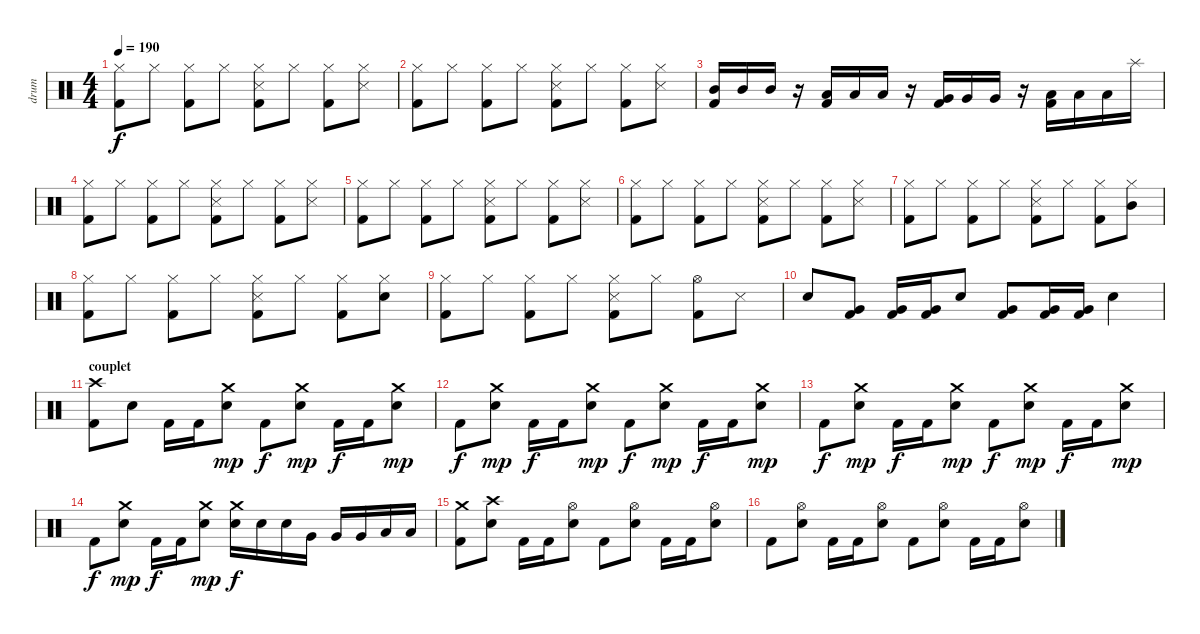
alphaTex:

\track ("drum" "drum") {instrument percussion}
\staff {score}
\articulation defaults
\ts (4 4)
\tempo 190
\clef neutral
\ks c
("Hi-Hat (closed)" "Kick (hit) 2").8{dy f} "Hi-Hat (closed)".8 ("Hi-Hat (closed)" "Kick (hit) 2").8 "Hi-Hat (closed)".8 ("Hi-Hat (closed)" "Snare (side stick) 3" "Kick (hit) 2").8 "Hi-Hat (closed)".8 ("Hi-Hat (closed)" "Kick (hit) 2").8 ("Hi-Hat (closed)" "Snare (side stick) 3").8 |
("Hi-Hat (closed)" "Kick (hit) 2").8 "Hi-Hat (closed)".8 ("Hi-Hat (closed)" "Kick (hit) 2").8 "Hi-Hat (closed)".8 ("Hi-Hat (closed)" "Snare (side stick) 3" "Kick (hit) 2").8 "Hi-Hat (closed)".8 ("Hi-Hat (closed)" "Kick (hit) 2").8 ("Hi-Hat (closed)" "Snare (side stick) 3").8 |
("Mid Tom (hit)" "Kick (hit) 2").16 "Mid Tom (hit)".16 "Mid Tom (hit)".16 r.16 ("Low Tom (hit)" "Kick (hit) 2").16 "Low Tom (hit)".16 "Low Tom (hit)".16 r.16 ("Very Low Tom (hit)" "Kick (hit) 2").16 "Very Low Tom (hit)".16 "Very Low Tom (hit)".16 r.16 ("Low Floor Tom (hit)" "Kick (hit) 2").16 "Low Floor Tom (hit)".16 "Low Floor Tom (hit)".16 "Splash (hit)".16 |
("Hi-Hat (closed)" "Kick (hit) 2").8 "Hi-Hat (closed)".8 ("Hi-Hat (closed)" "Kick (hit) 2").8 "Hi-Hat (closed)".8 ("Hi-Hat (closed)" "Snare (side stick) 3" "Kick (hit) 2").8 "Hi-Hat (closed)".8 ("Hi-Hat (closed)" "Kick (hit) 2").8 ("Hi-Hat (closed)" "Snare (side stick) 3").8 |
("Hi-Hat (closed)" "Kick (hit) 2").8 "Hi-Hat (closed)".8 ("Hi-Hat (closed)" "Kick (hit) 2").8 "Hi-Hat (closed)".8 ("Hi-Hat (closed)" "Snare (side stick) 3" "Kick (hit) 2").8 "Hi-Hat (closed)".8 ("Hi-Hat (closed)" "Kick (hit) 2").8 ("Hi-Hat (closed)" "Snare (side stick) 3").8 |
("Hi-Hat (closed)" "Kick (hit) 2").8 "Hi-Hat (closed)".8 ("Hi-Hat (closed)" "Kick (hit) 2").8 "Hi-Hat (closed)".8 ("Hi-Hat (closed)" "Snare (side stick) 3" "Kick (hit) 2").8 "Hi-Hat (closed)".8 ("Hi-Hat (closed)" "Kick (hit) 2").8 ("Hi-Hat (closed)" "Snare (side stick) 3").8 |
("Hi-Hat (closed)" "Kick (hit) 2").8 "Hi-Hat (closed)".8 ("Hi-Hat (closed)" "Kick (hit) 2").8 "Hi-Hat (closed)".8 ("Hi-Hat (closed)" "Snare (side stick) 3" "Kick (hit) 2").8 "Hi-Hat (closed)".8 ("Hi-Hat (closed)" "Kick (hit) 2").8 ("Hi-Hat (closed)" "Mid Tom (hit)").8 |
("Hi-Hat (closed)" "Kick (hit) 2").8 "Hi-Hat (closed)".8 ("Hi-Hat (closed)" "Kick (hit) 2").8 "Hi-Hat (closed)".8 ("Hi-Hat (closed)" "Snare (side stick) 3" "Kick (hit) 2").8 "Hi-Hat (closed)".8 ("Hi-Hat (closed)" "Kick (hit) 2").8 ("Hi-Hat (closed)" "Electric Snare (hit)").8 |
("Hi-Hat (closed)" "Kick (hit) 2").8 "Hi-Hat (closed)".8 ("Hi-Hat (closed)" "Kick (hit) 2").8 "Hi-Hat (closed)".8 ("Hi-Hat (closed)" "Snare (side stick) 3" "Kick (hit) 2").8 "Hi-Hat (closed)".8 ("Hi-Hat (open)" "Kick (hit) 2").8 "Snare (side stick) 3".8 |
"Electric Snare (hit)".8 ("Very Low Tom (hit)" "Kick (hit) 2").8 ("Very Low Tom (hit)" "Kick (hit) 2").16 ("Very Low Tom (hit)" "Kick (hit) 2").16 "Electric Snare (hit)".8 ("Very Low Tom (hit)" "Kick (hit) 2").8 ("Very Low Tom (hit)" "Kick (hit) 2").16 ("Very Low Tom (hit)" "Kick (hit) 2").16 "Electric Snare (hit)".4 |
\section ("" "couplet")
("Crash high (hit)" "Kick (hit) 2").8 "Electric Snare (hit)".8 "Kick (hit) 2".16 "Kick (hit) 2".16 ("Crash medium (hit)" "Electric Snare (hit)").8{dy mp} "Kick (hit) 2".8{dy f} ("Crash medium (hit)" "Electric Snare (hit)").8{dy mp} "Kick (hit) 2".16{dy f} "Kick (hit) 2".16 ("Crash medium (hit)" "Electric Snare (hit)").8{dy mp} |
"Kick (hit) 2".8{dy f} ("Crash medium (hit)" "Electric Snare (hit)").8{dy mp} "Kick (hit) 2".16{dy f} "Kick (hit) 2".16 ("Crash medium (hit)" "Electric Snare (hit)").8{dy mp} "Kick (hit) 2".8{dy f} ("Crash medium (hit)" "Electric Snare (hit)").8{dy mp} "Kick (hit) 2".16{dy f} "Kick (hit) 2".16 ("Crash medium (hit)" "Electric Snare (hit)").8{dy mp} |
"Kick (hit) 2".8{dy f} ("Crash medium (hit)" "Electric Snare (hit)").8{dy mp} "Kick (hit) 2".16{dy f} "Kick (hit) 2".16 ("Crash medium (hit)" "Electric Snare (hit)").8{dy mp} "Kick (hit) 2".8{dy f} ("Crash medium (hit)" "Electric Snare (hit)").8{dy mp} "Kick (hit) 2".16{dy f} "Kick (hit) 2".16 ("Crash medium (hit)" "Electric Snare (hit)").8{dy mp} |
"Kick (hit) 2".8{dy f} ("Crash medium (hit)" "Electric Snare (hit)").8{dy mp} "Kick (hit) 2".16{dy f} "Kick (hit) 2".16 ("Crash medium (hit)" "Electric Snare (hit)").8{dy mp} ("Crash medium (hit)" "Electric Snare (hit)").16{dy f} "Electric Snare (hit)".16 "Electric Snare (hit)".16 "Very Low Tom (hit)".16 "Very Low Tom (hit)".16 "Very Low Tom (hit)".16 "Low Floor Tom (hit)".16 "Low Floor Tom (hit)".16 |
("Crash medium (hit)" "Kick (hit) 2").8 ("Crash high (hit)" "Electric Snare (hit)").8 "Kick (hit) 2".16 "Kick (hit) 2".16 ("Hi-Hat (open)" "Electric Snare (hit)").8 "Kick (hit) 2".8 ("Hi-Hat (open)" "Electric Snare (hit)").8 "Kick (hit) 2".16 "Kick (hit) 2".16 ("Hi-Hat (open)" "Electric Snare (hit)").8 |
"Kick (hit) 2".8 ("Hi-Hat (open)" "Electric Snare (hit)").8 "Kick (hit) 2".16 "Kick (hit) 2".16 ("Hi-Hat (open)" "Electric Snare (hit)").8 "Kick (hit) 2".8 ("Hi-Hat (open)" "Electric Snare (hit)").8 "Kick (hit) 2".16 "Kick (hit) 2".16 ("Hi-Hat (open)" "Electric Snare (hit)").8
